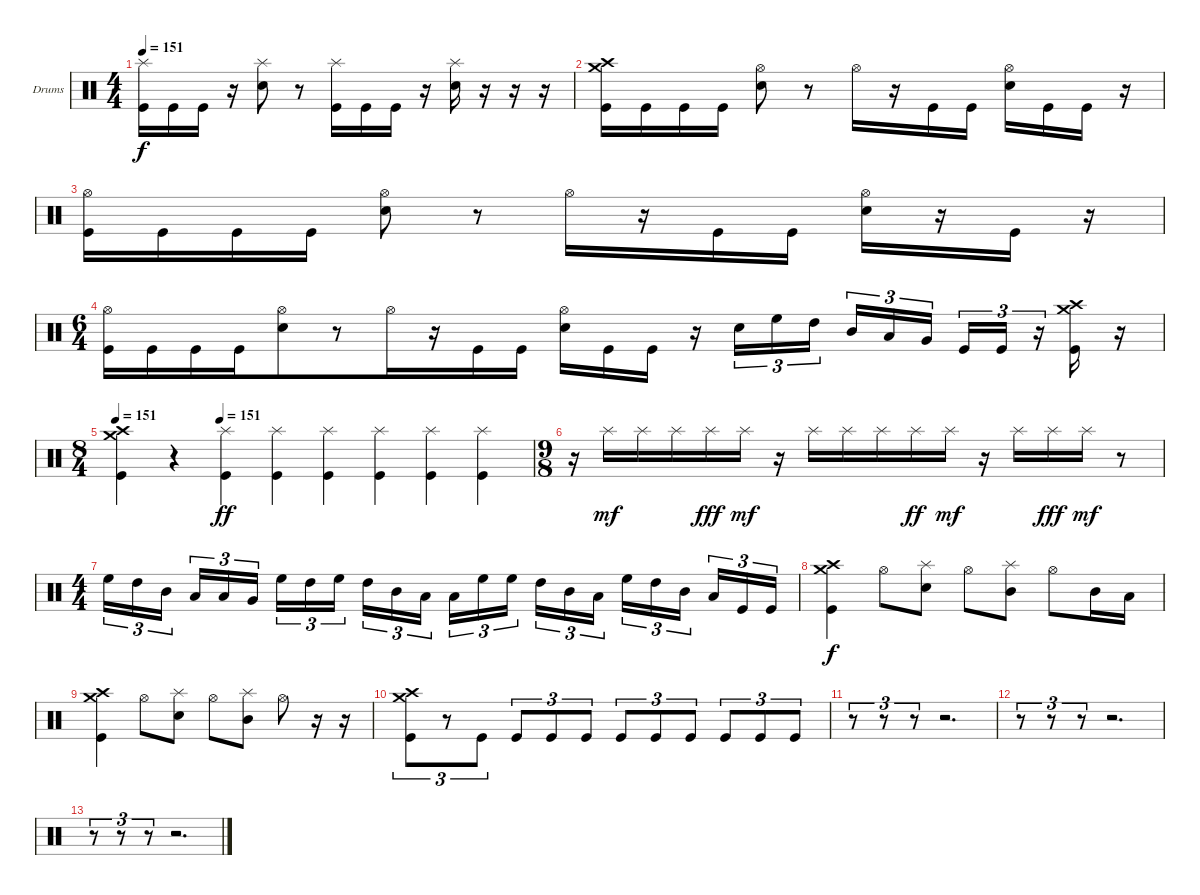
\bracketExtendMode groupsimilarinstruments
\firstSystemTrackNameOrientation horizontal
\otherSystemsTrackNameOrientation horizontal
\track ("Ударные" "Drums") {instrument percussion}
\staff {score}
\articulation defaults
\ts (4 4)
\tempo 151
\clef neutral
\ks c
("Splash (hit)" "Kick (hit)").16{dy f} "Kick (hit)".16 "Kick (hit)".16 r.16 ("Splash (hit)" "Snare (hit) 2").8 r.8 ("Splash (hit)" "Kick (hit)").16 "Kick (hit)".16 "Kick (hit)".16 r.16 ("Splash (hit)" "Snare (hit) 2").16 r.16 r.16 r.16 |
("Crash medium (hit)" "Crash high (hit)" "Kick (hit)").16 "Kick (hit)".16 "Kick (hit)".16 "Kick (hit)".16 ("Hi-Hat (open)" "Snare (hit) 2").8 r.8 "Hi-Hat (open)".16 r.16 "Kick (hit)".16 "Kick (hit)".16 ("Hi-Hat (open)" "Snare (hit) 2").16 "Kick (hit)".16 "Kick (hit)".16 r.16 |
("Hi-Hat (open)" "Kick (hit)").16 "Kick (hit)".16 "Kick (hit)".16 "Kick (hit)".16 ("Hi-Hat (open)" "Snare (hit) 2").8 r.8 "Hi-Hat (open)".16 r.16 "Kick (hit)".16 "Kick (hit)".16 ("Hi-Hat (open)" "Snare (hit) 2").16 r.16 "Kick (hit)".16 r.16 |
\ts (6 4)
\beaming (8 6 6)
("Hi-Hat (open)" "Kick (hit)").16 "Kick (hit)".16 "Kick (hit)".16 "Kick (hit)".16 ("Hi-Hat (open)" "Snare (hit) 2").8 r.8 "Hi-Hat (open)".16 r.16 "Kick (hit)".16 "Kick (hit)".16 ("Hi-Hat (open)" "Snare (hit) 2").16 "Kick (hit)".16 "Kick (hit)".16 r.16 "Snare (hit) 2".16{tu (3 2)} "High Floor Tom (hit)".16{tu (3 2)} "High Tom (hit)".16{tu (3 2)} "Mid Tom (hit)".16{tu (3 2)} "Low Tom (hit)".16{tu (3 2)} "Very Low Tom (hit)".16{tu (3 2)} "Kick (hit)".16{tu (3 2)} "Kick (hit)".16{tu (3 2)} r.16{tu (3 2)} ("Crash high (hit)" "Crash medium (hit)" "Kick (hit)").16 r.16 |
\ts (8 4)
\beaming (8 4 4 4 4)
\tempo 151
\tempo (151 0.25)
("Crash medium (hit)" "Crash high (hit)" "Kick (hit)").4 r.4 ("Splash (hit)" "Kick (hit)").4{dy ff} ("Splash (hit)" "Kick (hit)").4 ("Splash (hit)" "Kick (hit)").4 ("Splash (hit)" "Kick (hit)").4 ("Splash (hit)" "Kick (hit)").4 ("Splash (hit)" "Kick (hit)").4 |
\ts (9 8)
\beaming (8 3 3 3)
r.16 "Splash (hit)".16{dy mf} "Splash (hit)".16 "Splash (hit)".16 "Splash (hit)".16{dy fff} "Splash (hit)".16{dy mf} r.16 "Splash (hit)".16 "Splash (hit)".16 "Splash (hit)".16 "Splash (hit)".16{dy ff} "Splash (hit)".16{dy mf} r.16 "Splash (hit)".16 "Splash (hit)".16{dy fff} "Splash (hit)".16{dy mf} r.8 |
\ts (4 4)
\beaming (8 2 2 2 2)
"High Floor Tom (hit)".16{tu (3 2)} "High Tom (hit)".16{tu (3 2)} "Mid Tom (hit)".16{tu (3 2)} "Low Tom (hit)".16{tu (3 2)} "Low Tom (hit)".16{tu (3 2)} "Very Low Tom (hit)".16{tu (3 2)} "High Floor Tom (hit)".16{tu (3 2)} "High Tom (hit)".16{tu (3 2)} "High Floor Tom (hit)".16{tu (3 2)} "High Tom (hit)".16{tu (3 2)} "Mid Tom (hit)".16{tu (3 2)} "Low Tom (hit)".16{tu (3 2)} "Low Tom (hit)".16{tu (3 2)} "High Floor Tom (hit)".16{tu (3 2)} "High Floor Tom (hit)".16{tu (3 2)} "High Tom (hit)".16{tu (3 2)} "Mid Tom (hit)".16{tu (3 2)} "Low Tom (hit)".16{tu (3 2)} "High Floor Tom (hit)".16{tu (3 2)} "High Tom (hit)".16{tu (3 2)} "Mid Tom (hit)".16{tu (3 2)} "Low Tom (hit)".16{tu (3 2)} "Kick (hit)".16{tu (3 2)} "Kick (hit)".16{tu (3 2)} |
("Crash medium (hit)" "Crash high (hit)" "Kick (hit)").4{dy f} "Hi-Hat (open)".8 ("Splash (hit)" "Snare (hit) 2").8 "Hi-Hat (open)".8 ("Splash (hit)" "Mid Tom (hit)").8 "Hi-Hat (open)".8 "Mid Tom (hit)".16 "Low Tom (hit)".16 |
("Crash medium (hit)" "Crash high (hit)" "Kick (hit)").4 "Hi-Hat (open)".8 ("Splash (hit)" "Snare (hit) 2").8 "Hi-Hat (open)".8 ("Splash (hit)" "Mid Tom (hit)").8 "Hi-Hat (open)".8 r.16 r.16 |
("Crash medium (hit)" "Crash high (hit)" "Kick (hit)").8{tu (3 2)} r.8{tu (3 2)} "Kick (hit)".8{tu (3 2)} "Kick (hit)".8{tu (3 2)} "Kick (hit)".8{tu (3 2)} "Kick (hit)".8{tu (3 2)} "Kick (hit)".8{tu (3 2)} "Kick (hit)".8{tu (3 2)} "Kick (hit)".8{tu (3 2)} "Kick (hit)".8{tu (3 2)} "Kick (hit)".8{tu (3 2)} "Kick (hit)".8{tu (3 2)} |
r.8{tu (3 2)} r.8{tu (3 2)} r.8{tu (3 2)} r.2{d} |
r.8{tu (3 2)} r.8{tu (3 2)} r.8{tu (3 2)} r.2{d} |
r.8{tu (3 2)} r.8{tu (3 2)} r.8{tu (3 2)} r.2{d}
